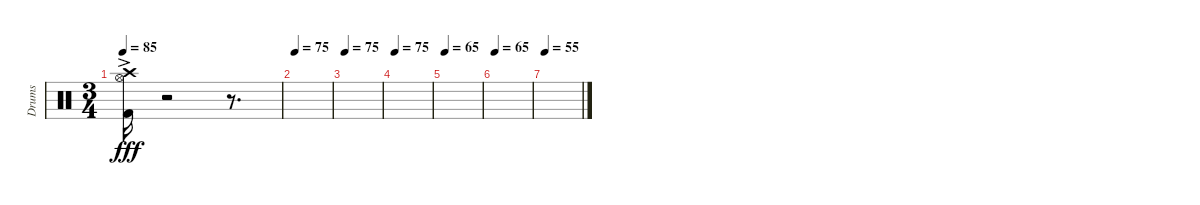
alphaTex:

\track ("Drums" "Drums") {instrument percussion}
\staff {score}
\articulation defaults
\ts (3 4)
\tempo 85
\clef neutral
\ks c
("Crash high (hit)"{ac} "Hi-Hat (open)"{ac} "Kick (hit) 2"{ac}).16{dy fff} r.2 r.8{d} |
\tempo 75
|
\tempo 75
|
\tempo 75
|
\tempo 65
|
\tempo 65
|
\tempo 55
